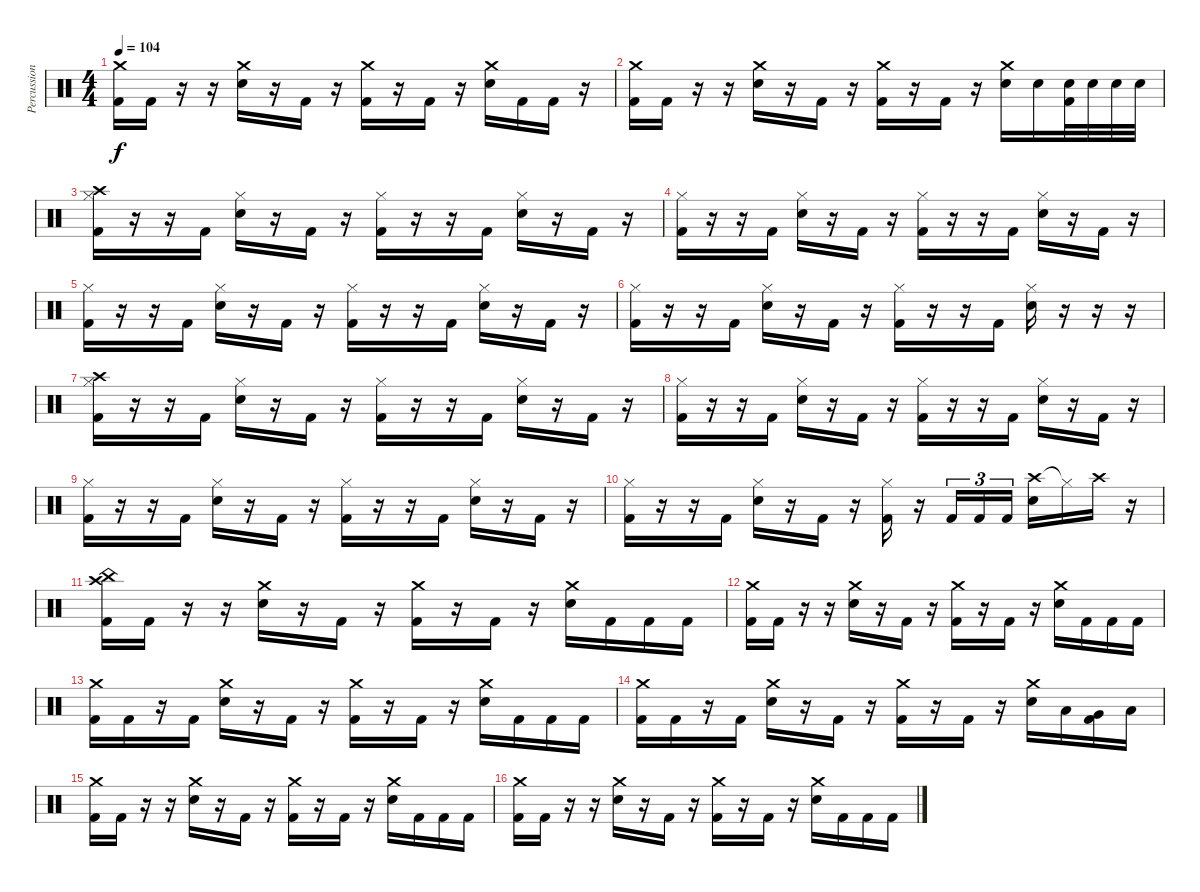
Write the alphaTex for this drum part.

\track ("Percussion" "Percussion") {instrument percussion}
\staff {score}
\articulation defaults
\ts (4 4)
\tempo 104
\clef neutral
\ks c
("Crash medium (hit)" "Kick (hit) 2").16{dy f} "Kick (hit) 2".16 r.16 r.16 ("Crash medium (hit)" "Electric Snare (hit)").16 r.16 "Kick (hit) 2".16 r.16 ("Crash medium (hit)" "Kick (hit) 2").16 r.16 "Kick (hit) 2".16 r.16 ("Crash medium (hit)" "Electric Snare (hit)").16 "Kick (hit) 2".16 "Kick (hit) 2".16 r.16 |
("Crash medium (hit)" "Kick (hit) 2").16 "Kick (hit) 2".16 r.16 r.16 ("Crash medium (hit)" "Electric Snare (hit)").16 r.16 "Kick (hit) 2".16 r.16 ("Crash medium (hit)" "Kick (hit) 2").16 r.16 "Kick (hit) 2".16 r.16 ("Crash medium (hit)" "Electric Snare (hit)").16 "Electric Snare (hit)".16 ("Electric Snare (hit)" "Kick (hit) 2").32 "Electric Snare (hit)".32 "Electric Snare (hit)".32 "Electric Snare (hit)".32 |
("Crash high (hit)" "Hi-Hat (closed)" "Kick (hit) 2").16 r.16 r.16 "Kick (hit) 2".16 ("Hi-Hat (closed)" "Electric Snare (hit)").16 r.16 "Kick (hit) 2".16 r.16 ("Hi-Hat (closed)" "Kick (hit) 2").16 r.16 r.16 "Kick (hit) 2".16 ("Hi-Hat (closed)" "Electric Snare (hit)").16 r.16 "Kick (hit) 2".16 r.16 |
("Hi-Hat (closed)" "Kick (hit) 2").16 r.16 r.16 "Kick (hit) 2".16 ("Hi-Hat (closed)" "Electric Snare (hit)").16 r.16 "Kick (hit) 2".16 r.16 ("Hi-Hat (closed)" "Kick (hit) 2").16 r.16 r.16 "Kick (hit) 2".16 ("Hi-Hat (closed)" "Electric Snare (hit)").16 r.16 "Kick (hit) 2".16 r.16 |
("Hi-Hat (closed)" "Kick (hit) 2").16 r.16 r.16 "Kick (hit) 2".16 ("Hi-Hat (closed)" "Electric Snare (hit)").16 r.16 "Kick (hit) 2".16 r.16 ("Hi-Hat (closed)" "Kick (hit) 2").16 r.16 r.16 "Kick (hit) 2".16 ("Hi-Hat (closed)" "Electric Snare (hit)").16 r.16 "Kick (hit) 2".16 r.16 |
("Hi-Hat (closed)" "Kick (hit) 2").16 r.16 r.16 "Kick (hit) 2".16 ("Hi-Hat (closed)" "Electric Snare (hit)").16 r.16 "Kick (hit) 2".16 r.16 ("Hi-Hat (closed)" "Kick (hit) 2").16 r.16 r.16 "Kick (hit) 2".16 ("Hi-Hat (closed)" "Electric Snare (hit)").16 r.16 r.16 r.16 |
("Crash high (hit)" "Hi-Hat (closed)" "Kick (hit) 2").16 r.16 r.16 "Kick (hit) 2".16 ("Hi-Hat (closed)" "Electric Snare (hit)").16 r.16 "Kick (hit) 2".16 r.16 ("Hi-Hat (closed)" "Kick (hit) 2").16 r.16 r.16 "Kick (hit) 2".16 ("Hi-Hat (closed)" "Electric Snare (hit)").16 r.16 "Kick (hit) 2".16 r.16 |
("Hi-Hat (closed)" "Kick (hit) 2").16 r.16 r.16 "Kick (hit) 2".16 ("Hi-Hat (closed)" "Electric Snare (hit)").16 r.16 "Kick (hit) 2".16 r.16 ("Hi-Hat (closed)" "Kick (hit) 2").16 r.16 r.16 "Kick (hit) 2".16 ("Hi-Hat (closed)" "Electric Snare (hit)").16 r.16 "Kick (hit) 2".16 r.16 |
("Hi-Hat (closed)" "Kick (hit) 2").16 r.16 r.16 "Kick (hit) 2".16 ("Hi-Hat (closed)" "Electric Snare (hit)").16 r.16 "Kick (hit) 2".16 r.16 ("Hi-Hat (closed)" "Kick (hit) 2").16 r.16 r.16 "Kick (hit) 2".16 ("Hi-Hat (closed)" "Electric Snare (hit)").16 r.16 "Kick (hit) 2".16 r.16 |
("Hi-Hat (closed)" "Kick (hit) 2").16 r.16 r.16 "Kick (hit) 2".16 ("Hi-Hat (closed)" "Electric Snare (hit)").16 r.16 "Kick (hit) 2".16 r.16 ("Hi-Hat (closed)" "Kick (hit) 2").16 r.16 "Kick (hit) 2".16{tu (3 2)} "Kick (hit) 2".16{tu (3 2)} "Kick (hit) 2".16{tu (3 2)} ("Crash high (hit)" "Electric Snare (hit)").16 "Hi-Hat (closed)"{t}.16 "Crash high (hit)".16 r.16 |
("China (hit)" "Crash high (hit)" "Kick (hit) 2").16 "Kick (hit) 2".16 r.16 r.16 ("Crash medium (hit)" "Electric Snare (hit)").16 r.16 "Kick (hit) 2".16 r.16 ("Crash medium (hit)" "Kick (hit) 2").16 r.16 "Kick (hit) 2".16 r.16 ("Crash medium (hit)" "Electric Snare (hit)").16 "Kick (hit) 2".16 "Kick (hit) 2".16 "Kick (hit) 2".16 |
("Crash medium (hit)" "Kick (hit) 2").16 "Kick (hit) 2".16 r.16 r.16 ("Crash medium (hit)" "Electric Snare (hit)").16 r.16 "Kick (hit) 2".16 r.16 ("Crash medium (hit)" "Kick (hit) 2").16 r.16 "Kick (hit) 2".16 r.16 ("Crash medium (hit)" "Electric Snare (hit)").16 "Kick (hit) 2".16 "Kick (hit) 2".16 "Kick (hit) 2".16 |
("Crash medium (hit)" "Kick (hit) 2").16 "Kick (hit) 2".16 r.16 "Kick (hit) 2".16 ("Crash medium (hit)" "Electric Snare (hit)").16 r.16 "Kick (hit) 2".16 r.16 ("Crash medium (hit)" "Kick (hit) 2").16 r.16 "Kick (hit) 2".16 r.16 ("Crash medium (hit)" "Electric Snare (hit)").16 "Kick (hit) 2".16 "Kick (hit) 2".16 "Kick (hit) 2".16 |
("Crash medium (hit)" "Kick (hit) 2").16 "Kick (hit) 2".16 r.16 "Kick (hit) 2".16 ("Crash medium (hit)" "Electric Snare (hit)").16 r.16 "Kick (hit) 2".16 r.16 ("Crash medium (hit)" "Kick (hit) 2").16 r.16 "Kick (hit) 2".16 r.16 ("Crash medium (hit)" "Electric Snare (hit)").16 "Low Tom (hit)".16 ("Very Low Tom (hit)" "Kick (hit) 2").16 "Low Floor Tom (hit)".16 |
("Crash medium (hit)" "Kick (hit) 2").16 "Kick (hit) 2".16 r.16 r.16 ("Crash medium (hit)" "Electric Snare (hit)").16 r.16 "Kick (hit) 2".16 r.16 ("Crash medium (hit)" "Kick (hit) 2").16 r.16 "Kick (hit) 2".16 r.16 ("Crash medium (hit)" "Electric Snare (hit)").16 "Kick (hit) 2".16 "Kick (hit) 2".16 "Kick (hit) 2".16 |
("Crash medium (hit)" "Kick (hit) 2").16 "Kick (hit) 2".16 r.16 r.16 ("Crash medium (hit)" "Electric Snare (hit)").16 r.16 "Kick (hit) 2".16 r.16 ("Crash medium (hit)" "Kick (hit) 2").16 r.16 "Kick (hit) 2".16 r.16 ("Crash medium (hit)" "Electric Snare (hit)").16 "Kick (hit) 2".16 "Kick (hit) 2".16 "Kick (hit) 2".16
